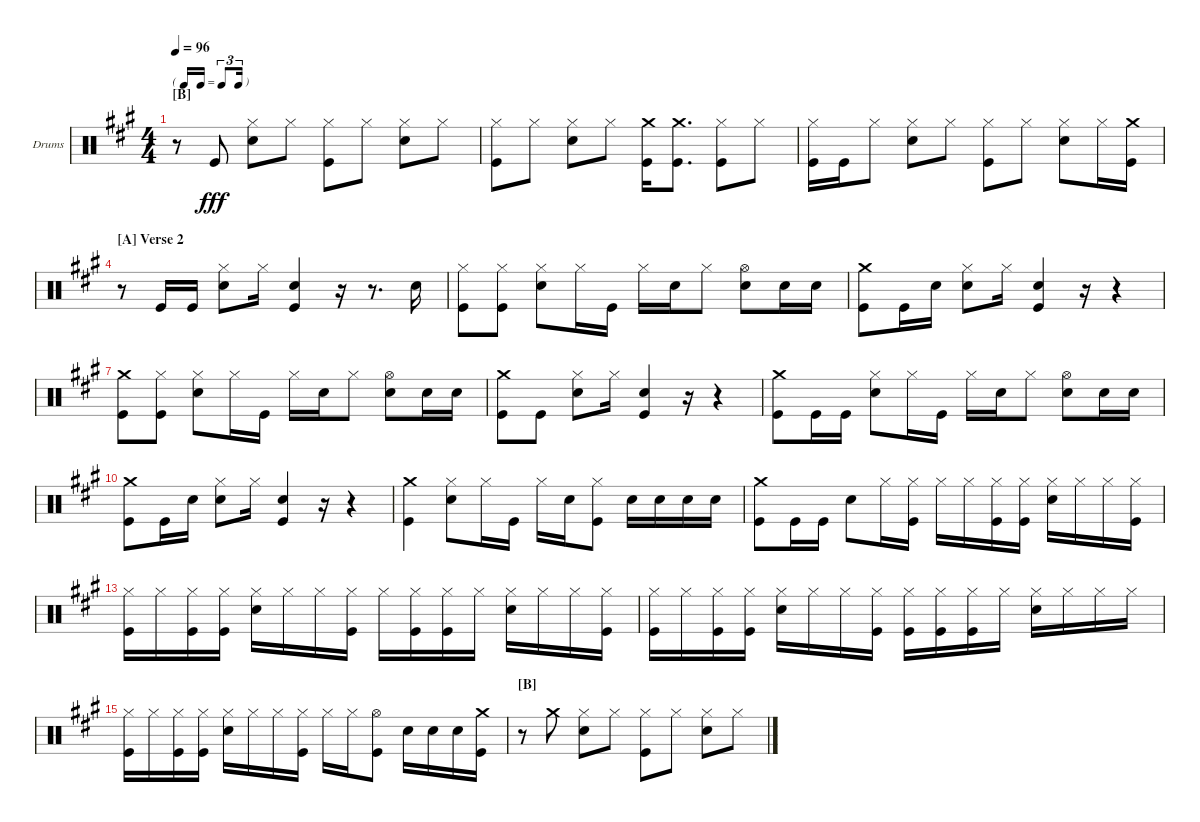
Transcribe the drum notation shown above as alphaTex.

\bracketExtendMode nobrackets
\firstSystemTrackNameOrientation horizontal
\otherSystemsTrackNameOrientation horizontal
\defaultBarNumberDisplay FirstOfSystem
\track ("Drumkit" "Drums") {instrument percussion}
\staff {score}
\articulation defaults
\ts (4 4)
\tf triplet16th
\section ("B" "")
\tempo 96
\clef neutral
\ks a
r.8{dy fff} "Kick (hit)".8 ("Snare (hit) 2" "Hi-Hat (closed)").8 "Hi-Hat (closed)".8 ("Kick (hit)" "Hi-Hat (closed)").8 "Hi-Hat (closed)".8 ("Snare (hit) 2" "Hi-Hat (closed)").8 "Hi-Hat (closed)".8 |
("Kick (hit)" "Hi-Hat (closed)").8 "Hi-Hat (closed)".8 ("Snare (hit) 2" "Hi-Hat (closed)").8 "Hi-Hat (closed)".8 ("Kick (hit)" "Crash medium (hit)").16 ("Kick (hit)" "Crash medium (hit)").8{d} ("Kick (hit)" "Hi-Hat (closed)").8 "Hi-Hat (closed)".8 |
("Kick (hit)" "Hi-Hat (closed)").16 "Kick (hit)".16 "Hi-Hat (closed)".8 ("Snare (hit) 2" "Hi-Hat (closed)").8 "Hi-Hat (closed)".8 ("Kick (hit)" "Hi-Hat (closed)").8 "Hi-Hat (closed)".8 ("Snare (hit) 2" "Hi-Hat (closed)").8 "Hi-Hat (closed)".16 ("Kick (hit)" "Crash medium (hit)").16 |
\section ("A" "Verse 2")
\scale
0.5 r.8 "Kick (hit)".16 "Kick (hit)".16 ("Snare (hit) 2" "Hi-Hat (closed)").8 "Hi-Hat (closed)".16 ("Kick (hit)" "Snare (hit) 2").4 r.16 r.8{d} "Snare (hit) 2".16 |
\scale
0.5 ("Kick (hit)" "Hi-Hat (closed)").8 ("Kick (hit)" "Hi-Hat (closed)").8 ("Snare (hit) 2" "Hi-Hat (closed)").8 "Hi-Hat (closed)".16 "Kick (hit)".16 "Hi-Hat (closed)".16 "Snare (hit) 2".16 "Hi-Hat (closed)".8 ("Hi-Hat (open)" "Snare (hit) 2").8 "Snare (hit) 2".16 "Snare (hit) 2".16 |
\scale
0.408037 ("Crash medium (hit)" "Kick (hit)").8 "Kick (hit)".16 "Snare (hit) 2".16 ("Hi-Hat (closed)" "Snare (hit) 2").8 "Hi-Hat (closed)".16 ("Kick (hit)" "Snare (hit) 2").4 r.16 r.4 |
\scale
0.591963 ("Kick (hit)" "Crash medium (hit)").8 ("Kick (hit)" "Hi-Hat (closed)").8 ("Snare (hit) 2" "Hi-Hat (closed)").8 "Hi-Hat (closed)".16 "Kick (hit)".16 "Hi-Hat (closed)".16 "Snare (hit) 2".16 "Hi-Hat (closed)".8 ("Snare (hit) 2" "Hi-Hat (open)").8 "Snare (hit) 2".16 "Snare (hit) 2".16 |
\scale
0.5 ("Kick (hit)" "Crash medium (hit)").8 "Kick (hit)".8 ("Snare (hit) 2" "Hi-Hat (closed)").8 "Hi-Hat (closed)".16 ("Kick (hit)" "Snare (hit) 2").4 r.16 r.4 |
\scale
0.5 ("Crash medium (hit)" "Kick (hit)").8 "Kick (hit)".16 "Kick (hit)".16 ("Hi-Hat (closed)" "Snare (hit) 2").8 "Hi-Hat (closed)".16 "Kick (hit)".16 "Hi-Hat (closed)".16 "Snare (hit) 2".16 "Hi-Hat (closed)".8 ("Snare (hit) 2" "Hi-Hat (open)").8 "Snare (hit) 2".16 "Snare (hit) 2".16 |
\scale
0.5 ("Kick (hit)" "Crash medium (hit)").8 "Kick (hit)".16 "Snare (hit) 2".16 ("Snare (hit) 2" "Hi-Hat (closed)").8 "Hi-Hat (closed)".16 ("Snare (hit) 2" "Kick (hit)").4 r.16 r.4 |
\scale
0.5 ("Crash medium (hit)" "Kick (hit)").4 ("Hi-Hat (closed)" "Snare (hit) 2").8 "Hi-Hat (closed)".16 "Kick (hit)".16 "Hi-Hat (closed)".16 "Snare (hit) 2".16 ("Kick (hit)" "Hi-Hat (closed)").8 "Snare (hit) 2".16 "Snare (hit) 2".16 "Snare (hit) 2".16 "Snare (hit) 2".16 |
\scale
0.5 ("Kick (hit)" "Crash medium (hit)").8 "Kick (hit)".16 "Kick (hit)".16 "Snare (hit) 2".8 "Hi-Hat (closed)".16 ("Kick (hit)" "Hi-Hat (closed)").16 "Hi-Hat (closed)".16 "Hi-Hat (closed)".16 ("Kick (hit)" "Hi-Hat (closed)").16 ("Kick (hit)" "Hi-Hat (closed)").16 ("Hi-Hat (closed)" "Snare (hit) 2").16 "Hi-Hat (closed)".16 "Hi-Hat (closed)".16 ("Hi-Hat (closed)" "Kick (hit)").16 |
\scale
0.5 ("Kick (hit)" "Hi-Hat (closed)").16 "Hi-Hat (closed)".16 ("Kick (hit)" "Hi-Hat (closed)").16 ("Kick (hit)" "Hi-Hat (closed)").16 ("Snare (hit) 2" "Hi-Hat (closed)").16 "Hi-Hat (closed)".16 "Hi-Hat (closed)".16 ("Kick (hit)" "Hi-Hat (closed)").16 "Hi-Hat (closed)".16 ("Kick (hit)" "Hi-Hat (closed)").16 ("Kick (hit)" "Hi-Hat (closed)").16 "Hi-Hat (closed)".16 ("Snare (hit) 2" "Hi-Hat (closed)").16 "Hi-Hat (closed)".16 "Hi-Hat (closed)".16 ("Kick (hit)" "Hi-Hat (closed)").16 |
\scale
0.5 ("Kick (hit)" "Hi-Hat (closed)").16 "Hi-Hat (closed)".16 ("Kick (hit)" "Hi-Hat (closed)").16 ("Kick (hit)" "Hi-Hat (closed)").16 ("Snare (hit) 2" "Hi-Hat (closed)").16 "Hi-Hat (closed)".16 "Hi-Hat (closed)".16 ("Kick (hit)" "Hi-Hat (closed)").16 ("Kick (hit)" "Hi-Hat (closed)").16 ("Kick (hit)" "Hi-Hat (closed)").16 ("Kick (hit)" "Hi-Hat (closed)").16 "Hi-Hat (closed)".16 ("Snare (hit) 2" "Hi-Hat (closed)").16 "Hi-Hat (closed)".16 "Hi-Hat (closed)".16 "Hi-Hat (closed)".16 |
\scale
0.5 ("Kick (hit)" "Hi-Hat (closed)").16 "Hi-Hat (closed)".16 ("Kick (hit)" "Hi-Hat (closed)").16 ("Kick (hit)" "Hi-Hat (closed)").16 ("Snare (hit) 2" "Hi-Hat (closed)").16 "Hi-Hat (closed)".16 "Hi-Hat (closed)".16 ("Kick (hit)" "Hi-Hat (closed)").16 "Hi-Hat (closed)".16 "Hi-Hat (closed)".16 ("Kick (hit)" "Hi-Hat (open)").8 "Snare (hit) 2".16 "Snare (hit) 2".16 "Snare (hit) 2".16 ("Kick (hit)" "Crash medium (hit)").16 |
\section ("B" "")
r.8 "Crash medium (hit)".8 ("Snare (hit) 2" "Hi-Hat (closed)").8 "Hi-Hat (closed)".8 ("Kick (hit)" "Hi-Hat (closed)").8 "Hi-Hat (closed)".8 ("Snare (hit) 2" "Hi-Hat (closed)").8 "Hi-Hat (closed)".8
